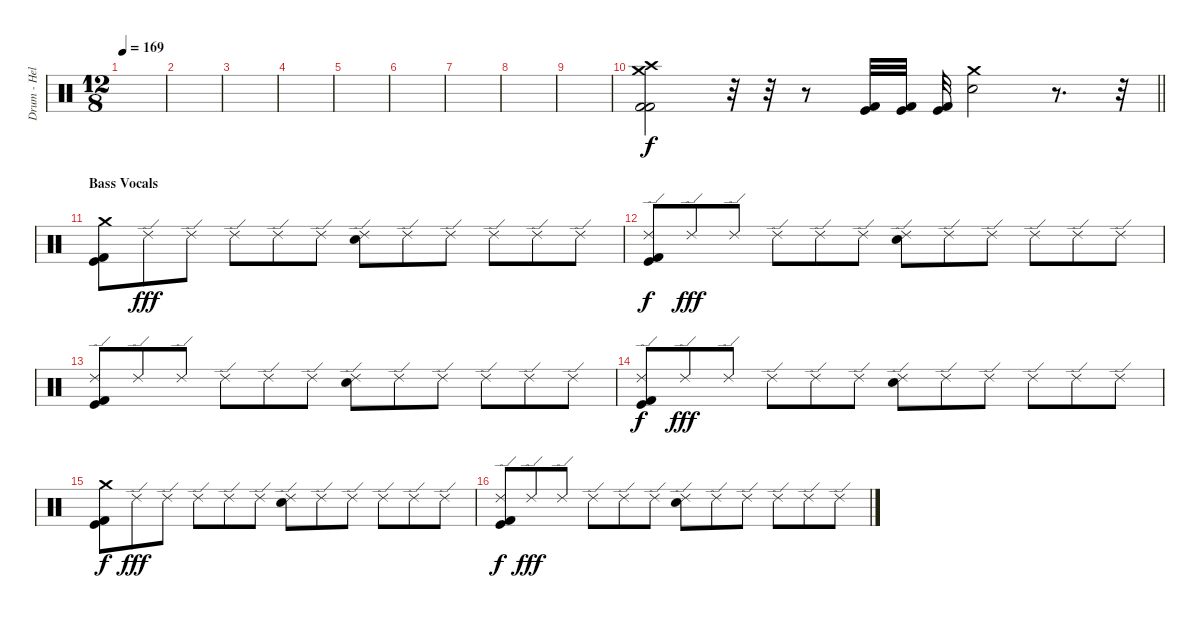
\track ("Drum - Hellhammer" "Drum - Hel") {instrument percussion}
\staff {score}
\articulation defaults
\ts (12 8)
\tempo 169
\clef neutral
\ks c
|
|
|
|
|
|
|
|
|
\barLineRight lightlight
("Crash medium (hit)" "Crash high (hit)" "Kick (hit) 2" "Kick (hit) 2").2 r.32 r.32 r.8 ("Kick (hit)" "Kick (hit) 2").32 ("Kick (hit)" "Kick (hit) 2").32 ("Kick (hit)" "Kick (hit) 2").32 ("Crash medium (hit)" "Electric Snare (hit)").2 r.8{d} r.32 |
\section ("" "Bass Vocals")
("Crash medium (hit)" "Kick (hit) 2" "Kick (hit)").8{dy f} "Ride (edge) 2".8{dy fff} "Ride (edge) 2".8 "Ride (edge) 2".8 "Ride (edge) 2".8 "Ride (edge) 2".8 ("Electric Snare (hit)" "Ride (edge) 2").8 "Ride (edge) 2".8 "Ride (edge) 2".8 "Ride (edge) 2".8 "Ride (edge) 2".8 "Ride (edge) 2".8 |
("Ride (edge) 2" "Kick (hit) 2" "Kick (hit)").8{dy f} "Ride (edge) 2".8{dy fff} "Ride (edge) 2".8 "Ride (edge) 2".8 "Ride (edge) 2".8 "Ride (edge) 2".8 ("Electric Snare (hit)" "Ride (edge) 2").8 "Ride (edge) 2".8 "Ride (edge) 2".8 "Ride (edge) 2".8 "Ride (edge) 2".8 "Ride (edge) 2".8 |
("Ride (edge) 2" "Kick (hit) 2" "Kick (hit)").8 "Ride (edge) 2".8 "Ride (edge) 2".8 "Ride (edge) 2".8 "Ride (edge) 2".8 "Ride (edge) 2".8 ("Electric Snare (hit)" "Ride (edge) 2").8 "Ride (edge) 2".8 "Ride (edge) 2".8 "Ride (edge) 2".8 "Ride (edge) 2".8 "Ride (edge) 2".8 |
("Ride (edge) 2" "Kick (hit) 2" "Kick (hit)").8{dy f} "Ride (edge) 2".8{dy fff} "Ride (edge) 2".8 "Ride (edge) 2".8 "Ride (edge) 2".8 "Ride (edge) 2".8 ("Electric Snare (hit)" "Ride (edge) 2").8 "Ride (edge) 2".8 "Ride (edge) 2".8 "Ride (edge) 2".8 "Ride (edge) 2".8 "Ride (edge) 2".8 |
("Crash medium (hit)" "Kick (hit) 2" "Kick (hit)").8{dy f} "Ride (edge) 2".8{dy fff} "Ride (edge) 2".8 "Ride (edge) 2".8 "Ride (edge) 2".8 "Ride (edge) 2".8 ("Electric Snare (hit)" "Ride (edge) 2").8 "Ride (edge) 2".8 "Ride (edge) 2".8 "Ride (edge) 2".8 "Ride (edge) 2".8 "Ride (edge) 2".8 |
("Ride (edge) 2" "Kick (hit) 2" "Kick (hit)").8{dy f} "Ride (edge) 2".8{dy fff} "Ride (edge) 2".8 "Ride (edge) 2".8 "Ride (edge) 2".8 "Ride (edge) 2".8 ("Electric Snare (hit)" "Ride (edge) 2").8 "Ride (edge) 2".8 "Ride (edge) 2".8 "Ride (edge) 2".8 "Ride (edge) 2".8 "Ride (edge) 2".8
